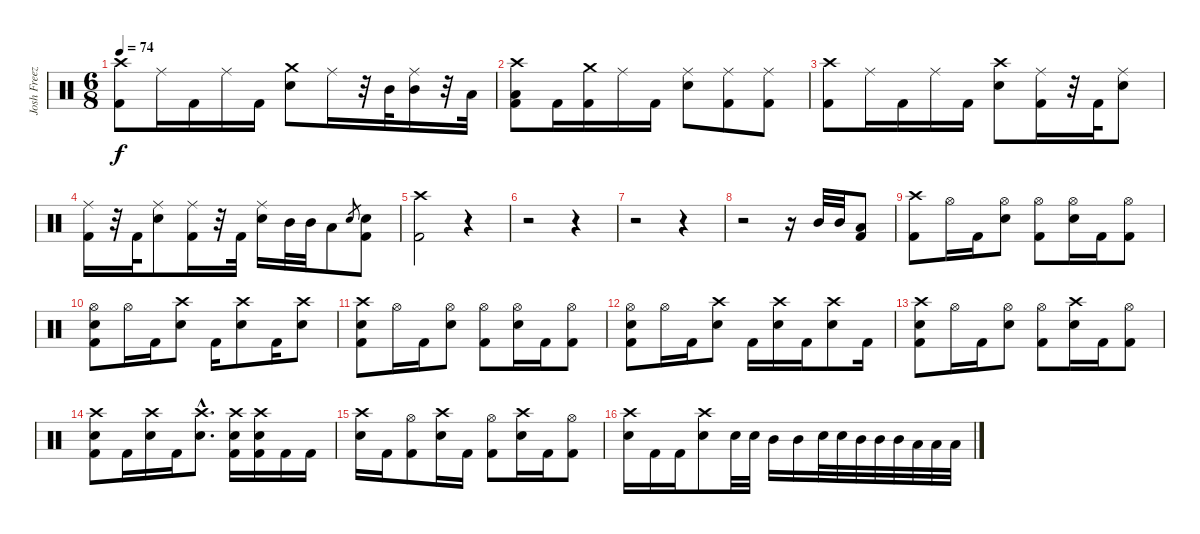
\track ("Josh Freeze - Drums" "Josh Freez") {instrument percussion}
\staff {score}
\articulation defaults
\ts (6 8)
\tempo 74
\clef neutral
\ks c
("Crash high (hit)" "Kick (hit) 2").8{dy f} "Ride (middle)".16 "Kick (hit) 2".16 "Ride (middle)".16 "Kick (hit) 2".16 ("Crash medium (hit)" "Electric Snare (hit)").8 "Ride (middle)".16 r.32 "Mid Tom (hit)".32 ("Ride (middle)" "Mid Tom (hit)").16 r.32 "Low Tom (hit)".32 |
("Crash high (hit)" "Low Tom (hit)" "Kick (hit) 2").8 "Kick (hit) 2".16 ("Crash medium (hit)" "Kick (hit) 2").16 "Ride (middle)".16 "Kick (hit) 2".16 ("Ride (middle)" "Electric Snare (hit)").8 ("Ride (middle)" "Kick (hit) 2").8 ("Ride (middle)" "Kick (hit) 2").8 |
("Crash high (hit)" "Kick (hit) 2").8 "Ride (middle)".16 "Kick (hit) 2".16 "Ride (middle)".16 "Kick (hit) 2".16 ("Crash high (hit)" "Electric Snare (hit)").8 ("Ride (middle)" "Kick (hit) 2").16 r.32 "Kick (hit) 2".32 ("Ride (middle)" "Electric Snare (hit)").8 |
("Ride (middle)" "Kick (hit) 2").16 r.32 "Kick (hit) 2".32 ("Ride (middle)" "Electric Snare (hit)").8 ("Ride (middle)" "Kick (hit) 2").16 r.32 "Kick (hit) 2".32 ("Ride (middle)" "Electric Snare (hit)").16 "Mid Tom (hit)".32 "Mid Tom (hit)".32 "Low Tom (hit)".8 "Electric Snare (hit)".8{gr} ("Electric Snare (hit)" "Kick (hit) 2").8 |
("Crash high (hit)" "Kick (hit) 2").2 r.4 |
r.2 r.4 |
r.2 r.4 |
r.2 r.16 "Mid Tom (hit)".32 "Mid Tom (hit)".32 ("Low Tom (hit)" "Kick (hit) 2").8 |
("Crash high (hit)" "Kick (hit) 2").8 "Hi-Hat (open)".16 "Kick (hit) 2".16 ("Hi-Hat (open)" "Electric Snare (hit)").8 ("Hi-Hat (open)" "Kick (hit) 2").8 ("Hi-Hat (open)" "Electric Snare (hit)").16 "Kick (hit) 2".16 ("Hi-Hat (open)" "Kick (hit) 2").8 |
("Hi-Hat (open)" "Electric Snare (hit)" "Kick (hit) 2").8 "Hi-Hat (open)".16 "Kick (hit) 2".16 ("Crash high (hit)" "Electric Snare (hit)").8 "Kick (hit) 2".16 ("Crash high (hit)" "Electric Snare (hit)").8 "Kick (hit) 2".16 ("Crash high (hit)" "Electric Snare (hit)").8 |
("Crash high (hit)" "Electric Snare (hit)" "Kick (hit) 2").8 "Hi-Hat (open)".16 "Kick (hit) 2".16 ("Hi-Hat (open)" "Electric Snare (hit)").8 ("Hi-Hat (open)" "Kick (hit) 2").8 ("Hi-Hat (open)" "Electric Snare (hit)").16 "Kick (hit) 2".16 ("Hi-Hat (open)" "Kick (hit) 2").8 |
("Hi-Hat (open)" "Electric Snare (hit)" "Kick (hit) 2").8 "Hi-Hat (open)".16 "Kick (hit) 2".16 ("Crash high (hit)" "Electric Snare (hit)").8 "Kick (hit) 2".16 ("Crash high (hit)" "Electric Snare (hit)").16 "Kick (hit) 2".16 ("Crash high (hit)" "Electric Snare (hit)").8 "Kick (hit) 2".16 |
("Crash high (hit)" "Electric Snare (hit)" "Kick (hit) 2").8 "Hi-Hat (open)".16 "Kick (hit) 2".16 ("Hi-Hat (open)" "Electric Snare (hit)").8 ("Hi-Hat (open)" "Kick (hit) 2").8 ("Crash high (hit)" "Electric Snare (hit)").16 "Kick (hit) 2".16 ("Hi-Hat (open)" "Kick (hit) 2").8 |
("Crash high (hit)" "Electric Snare (hit)" "Kick (hit) 2").8 "Kick (hit) 2".16 ("Crash high (hit)" "Electric Snare (hit)").16 "Kick (hit) 2".16 ("Crash high (hit)"{hac} "Electric Snare (hit)"{hac}).8{d} ("Crash high (hit)" "Electric Snare (hit)" "Kick (hit) 2").16 ("Crash high (hit)" "Electric Snare (hit)" "Kick (hit) 2").16 "Kick (hit) 2".16 "Kick (hit) 2".16 |
("Crash high (hit)" "Electric Snare (hit)").16 "Kick (hit) 2".16 ("Hi-Hat (open)" "Kick (hit) 2").8 ("Crash high (hit)" "Electric Snare (hit)").16 "Kick (hit) 2".16 ("Hi-Hat (open)" "Kick (hit) 2").8 ("Crash high (hit)" "Electric Snare (hit)").16 "Kick (hit) 2".16 ("Hi-Hat (open)" "Kick (hit) 2").8 |
("Crash high (hit)" "Electric Snare (hit)").16 "Kick (hit) 2".16 "Kick (hit) 2".16 ("Crash high (hit)" "Electric Snare (hit)").8 "Electric Snare (hit)".32 "Electric Snare (hit)".32 "Mid Tom (hit)".16 "Mid Tom (hit)".16 "Electric Snare (hit)".32 "Electric Snare (hit)".32 "Mid Tom (hit)".32 "Mid Tom (hit)".32 "Mid Tom (hit)".32 "Low Tom (hit)".32 "Low Tom (hit)".32 "Low Tom (hit)".32
